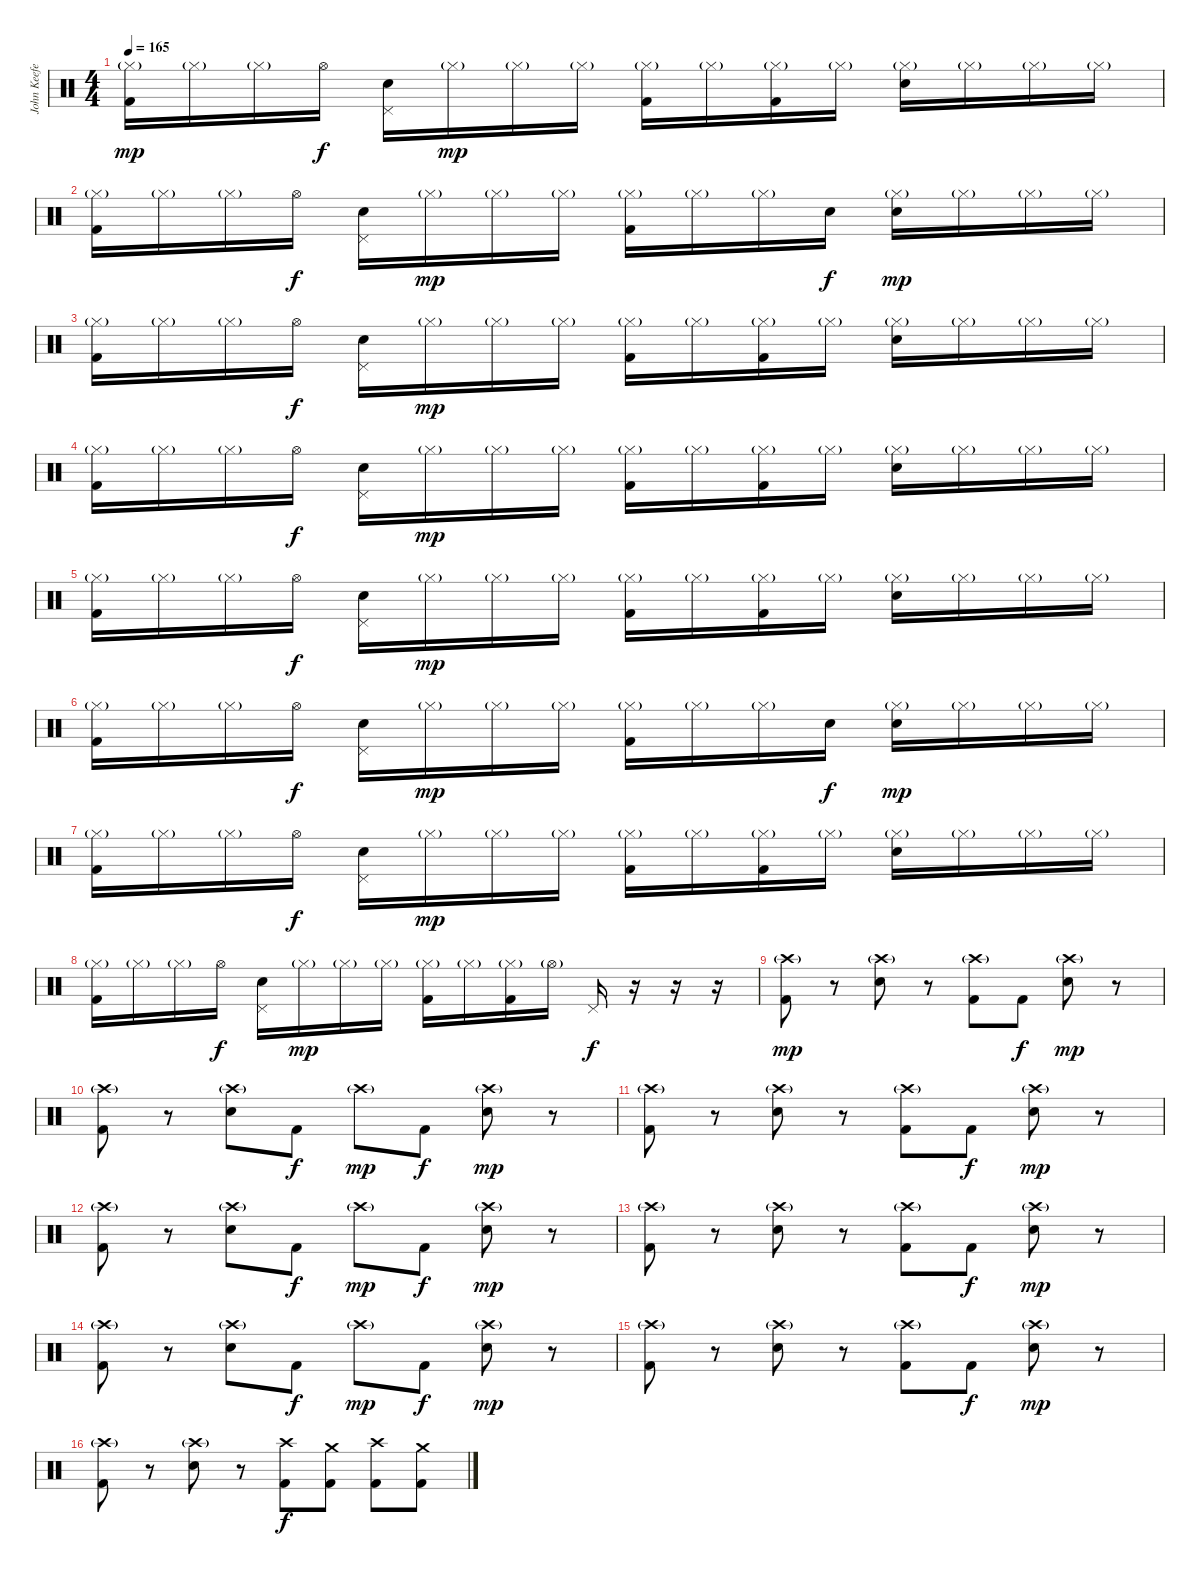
\track ("John Keefe (Drums)" "John Keefe") {instrument percussion}
\staff {score}
\articulation defaults
\ts (4 4)
\tempo 165
\clef neutral
\ks c
("Hi-Hat (closed)"{g} "Kick (hit) 2").16{dy mp} "Hi-Hat (closed)"{g}.16 "Hi-Hat (closed)"{g}.16 "Hi-Hat (open)".16{dy f} ("Pedal Hi-Hat (hit)" "Electric Snare (hit)").16 "Hi-Hat (closed)"{g}.16{dy mp} "Hi-Hat (closed)"{g}.16 "Hi-Hat (closed)"{g}.16 ("Hi-Hat (closed)"{g} "Kick (hit) 2").16 "Hi-Hat (closed)"{g}.16 ("Hi-Hat (closed)"{g} "Kick (hit) 2").16 "Hi-Hat (closed)"{g}.16 ("Hi-Hat (closed)"{g} "Electric Snare (hit)").16 "Hi-Hat (closed)"{g}.16 "Hi-Hat (closed)"{g}.16 "Hi-Hat (closed)"{g}.16 |
("Hi-Hat (closed)"{g} "Kick (hit) 2").16 "Hi-Hat (closed)"{g}.16 "Hi-Hat (closed)"{g}.16 "Hi-Hat (open)".16{dy f} ("Pedal Hi-Hat (hit)" "Electric Snare (hit)").16 "Hi-Hat (closed)"{g}.16{dy mp} "Hi-Hat (closed)"{g}.16 "Hi-Hat (closed)"{g}.16 ("Hi-Hat (closed)"{g} "Kick (hit) 2").16 "Hi-Hat (closed)"{g}.16 "Hi-Hat (closed)"{g}.16 "Electric Snare (hit)".16{dy f} ("Hi-Hat (closed)"{g} "Electric Snare (hit)").16{dy mp} "Hi-Hat (closed)"{g}.16 "Hi-Hat (closed)"{g}.16 "Hi-Hat (closed)"{g}.16 |
("Hi-Hat (closed)"{g} "Kick (hit) 2").16 "Hi-Hat (closed)"{g}.16 "Hi-Hat (closed)"{g}.16 "Hi-Hat (open)".16{dy f} ("Pedal Hi-Hat (hit)" "Electric Snare (hit)").16 "Hi-Hat (closed)"{g}.16{dy mp} "Hi-Hat (closed)"{g}.16 "Hi-Hat (closed)"{g}.16 ("Hi-Hat (closed)"{g} "Kick (hit) 2").16 "Hi-Hat (closed)"{g}.16 ("Hi-Hat (closed)"{g} "Kick (hit) 2").16 "Hi-Hat (closed)"{g}.16 ("Hi-Hat (closed)"{g} "Electric Snare (hit)").16 "Hi-Hat (closed)"{g}.16 "Hi-Hat (closed)"{g}.16 "Hi-Hat (closed)"{g}.16 |
("Hi-Hat (closed)"{g} "Kick (hit) 2").16 "Hi-Hat (closed)"{g}.16 "Hi-Hat (closed)"{g}.16 "Hi-Hat (open)".16{dy f} ("Pedal Hi-Hat (hit)" "Electric Snare (hit)").16 "Hi-Hat (closed)"{g}.16{dy mp} "Hi-Hat (closed)"{g}.16 "Hi-Hat (closed)"{g}.16 ("Hi-Hat (closed)"{g} "Kick (hit) 2").16 "Hi-Hat (closed)"{g}.16 ("Hi-Hat (closed)"{g} "Kick (hit) 2").16 "Hi-Hat (closed)"{g}.16 ("Hi-Hat (closed)"{g} "Electric Snare (hit)").16 "Hi-Hat (closed)"{g}.16 "Hi-Hat (closed)"{g}.16 "Hi-Hat (closed)"{g}.16 |
("Hi-Hat (closed)"{g} "Kick (hit) 2").16 "Hi-Hat (closed)"{g}.16 "Hi-Hat (closed)"{g}.16 "Hi-Hat (open)".16{dy f} ("Pedal Hi-Hat (hit)" "Electric Snare (hit)").16 "Hi-Hat (closed)"{g}.16{dy mp} "Hi-Hat (closed)"{g}.16 "Hi-Hat (closed)"{g}.16 ("Hi-Hat (closed)"{g} "Kick (hit) 2").16 "Hi-Hat (closed)"{g}.16 ("Hi-Hat (closed)"{g} "Kick (hit) 2").16 "Hi-Hat (closed)"{g}.16 ("Hi-Hat (closed)"{g} "Electric Snare (hit)").16 "Hi-Hat (closed)"{g}.16 "Hi-Hat (closed)"{g}.16 "Hi-Hat (closed)"{g}.16 |
("Hi-Hat (closed)"{g} "Kick (hit) 2").16 "Hi-Hat (closed)"{g}.16 "Hi-Hat (closed)"{g}.16 "Hi-Hat (open)".16{dy f} ("Pedal Hi-Hat (hit)" "Electric Snare (hit)").16 "Hi-Hat (closed)"{g}.16{dy mp} "Hi-Hat (closed)"{g}.16 "Hi-Hat (closed)"{g}.16 ("Hi-Hat (closed)"{g} "Kick (hit) 2").16 "Hi-Hat (closed)"{g}.16 "Hi-Hat (closed)"{g}.16 "Electric Snare (hit)".16{dy f} ("Hi-Hat (closed)"{g} "Electric Snare (hit)").16{dy mp} "Hi-Hat (closed)"{g}.16 "Hi-Hat (closed)"{g}.16 "Hi-Hat (closed)"{g}.16 |
("Hi-Hat (closed)"{g} "Kick (hit) 2").16 "Hi-Hat (closed)"{g}.16 "Hi-Hat (closed)"{g}.16 "Hi-Hat (open)".16{dy f} ("Pedal Hi-Hat (hit)" "Electric Snare (hit)").16 "Hi-Hat (closed)"{g}.16{dy mp} "Hi-Hat (closed)"{g}.16 "Hi-Hat (closed)"{g}.16 ("Hi-Hat (closed)"{g} "Kick (hit) 2").16 "Hi-Hat (closed)"{g}.16 ("Hi-Hat (closed)"{g} "Kick (hit) 2").16 "Hi-Hat (closed)"{g}.16 ("Hi-Hat (closed)"{g} "Electric Snare (hit)").16 "Hi-Hat (closed)"{g}.16 "Hi-Hat (closed)"{g}.16 "Hi-Hat (closed)"{g}.16 |
("Hi-Hat (closed)"{g} "Kick (hit) 2").16 "Hi-Hat (closed)"{g}.16 "Hi-Hat (closed)"{g}.16 "Hi-Hat (open)".16{dy f} ("Pedal Hi-Hat (hit)" "Electric Snare (hit)").16 "Hi-Hat (closed)"{g}.16{dy mp} "Hi-Hat (closed)"{g}.16 "Hi-Hat (closed)"{g}.16 ("Hi-Hat (closed)"{g} "Kick (hit) 2").16 "Hi-Hat (closed)"{g}.16 ("Hi-Hat (closed)"{g} "Kick (hit) 2").16 "Hi-Hat (open)"{g}.16 "Pedal Hi-Hat (hit)".16{dy f} r.16 r.16 r.16 |
("Crash high (hit)"{g} "Kick (hit) 2").8{dy mp} r.8 ("Crash high (hit)"{g} "Electric Snare (hit)").8 r.8 ("Crash high (hit)"{g} "Kick (hit) 2").8 "Kick (hit) 2".8{dy f} ("Crash high (hit)"{g} "Electric Snare (hit)").8{dy mp} r.8 |
("Crash high (hit)"{g} "Kick (hit) 2").8 r.8 ("Crash high (hit)"{g} "Electric Snare (hit)").8 "Kick (hit) 2".8{dy f} "Crash high (hit)"{g}.8{dy mp} "Kick (hit) 2".8{dy f} ("Crash high (hit)"{g} "Electric Snare (hit)").8{dy mp} r.8 |
("Crash high (hit)"{g} "Kick (hit) 2").8 r.8 ("Crash high (hit)"{g} "Electric Snare (hit)").8 r.8 ("Crash high (hit)"{g} "Kick (hit) 2").8 "Kick (hit) 2".8{dy f} ("Crash high (hit)"{g} "Electric Snare (hit)").8{dy mp} r.8 |
("Crash high (hit)"{g} "Kick (hit) 2").8 r.8 ("Crash high (hit)"{g} "Electric Snare (hit)").8 "Kick (hit) 2".8{dy f} "Crash high (hit)"{g}.8{dy mp} "Kick (hit) 2".8{dy f} ("Crash high (hit)"{g} "Electric Snare (hit)").8{dy mp} r.8 |
("Crash high (hit)"{g} "Kick (hit) 2").8 r.8 ("Crash high (hit)"{g} "Electric Snare (hit)").8 r.8 ("Crash high (hit)"{g} "Kick (hit) 2").8 "Kick (hit) 2".8{dy f} ("Crash high (hit)"{g} "Electric Snare (hit)").8{dy mp} r.8 |
("Crash high (hit)"{g} "Kick (hit) 2").8 r.8 ("Crash high (hit)"{g} "Electric Snare (hit)").8 "Kick (hit) 2".8{dy f} "Crash high (hit)"{g}.8{dy mp} "Kick (hit) 2".8{dy f} ("Crash high (hit)"{g} "Electric Snare (hit)").8{dy mp} r.8 |
("Crash high (hit)"{g} "Kick (hit) 2").8 r.8 ("Crash high (hit)"{g} "Electric Snare (hit)").8 r.8 ("Crash high (hit)"{g} "Kick (hit) 2").8 "Kick (hit) 2".8{dy f} ("Crash high (hit)"{g} "Electric Snare (hit)").8{dy mp} r.8 |
("Crash high (hit)"{g} "Kick (hit) 2").8 r.8 ("Crash high (hit)"{g} "Electric Snare (hit)").8 r.8 ("Crash high (hit)" "Kick (hit) 2").8{dy f} ("Crash medium (hit)" "Kick (hit) 2").8 ("Crash high (hit)" "Kick (hit) 2").8 ("Crash medium (hit)" "Kick (hit) 2").8
